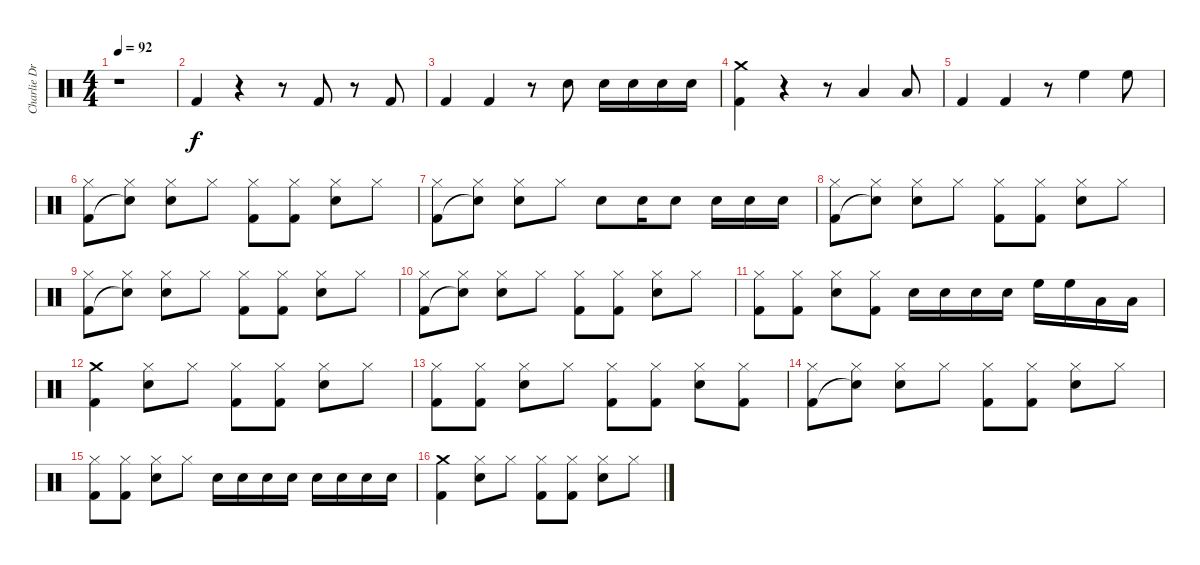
\track ("Charlie Drums" "Charlie Dr") {instrument percussion}
\staff {score}
\articulation defaults
\ts (4 4)
\tempo 92
\clef neutral
\ks c
r.1{dy f} |
"Kick (hit) 2".4 r.4 r.8 "Kick (hit) 2".8 r.8 "Kick (hit) 2".8 |
"Kick (hit) 2".4 "Kick (hit) 2".4 r.8 "Snare (hit) 2".8 "Snare (hit) 2".16 "Snare (hit) 2".16 "Snare (hit) 2".16 "Snare (hit) 2".16 |
("Crash medium (hit)" "Kick (hit) 2").4 r.4 r.8 "Low Tom (hit)".4 "Low Tom (hit)".8 |
"Kick (hit) 2".4 "Kick (hit) 2".4 r.8 "High Floor Tom (hit)".4 "High Floor Tom (hit)".8 |
("Hi-Hat (closed)" "Kick (hit) 2").8 ("Hi-Hat (closed)" "Snare (hit)"{t}).8 ("Hi-Hat (closed)" "Snare (hit) 2").8 "Hi-Hat (closed)".8 ("Hi-Hat (closed)" "Kick (hit) 2").8 ("Hi-Hat (closed)" "Kick (hit) 2").8 ("Hi-Hat (closed)" "Snare (hit) 2").8 "Hi-Hat (closed)".8 |
("Hi-Hat (closed)" "Kick (hit) 2").8 ("Hi-Hat (closed)" "Snare (hit)"{t}).8 ("Hi-Hat (closed)" "Snare (hit) 2").8 "Hi-Hat (closed)".8 "Snare (hit) 2".8 "Snare (hit) 2".16 "Snare (hit) 2".8 "Snare (hit) 2".16 "Snare (hit) 2".16 "Snare (hit) 2".16 |
("Hi-Hat (closed)" "Kick (hit) 2").8 ("Hi-Hat (closed)" "Snare (hit)"{t}).8 ("Hi-Hat (closed)" "Snare (hit) 2").8 "Hi-Hat (closed)".8 ("Hi-Hat (closed)" "Kick (hit) 2").8 ("Hi-Hat (closed)" "Kick (hit) 2").8 ("Hi-Hat (closed)" "Snare (hit) 2").8 "Hi-Hat (closed)".8 |
("Hi-Hat (closed)" "Kick (hit) 2").8 ("Hi-Hat (closed)" "Snare (hit)"{t}).8 ("Hi-Hat (closed)" "Snare (hit) 2").8 "Hi-Hat (closed)".8 ("Hi-Hat (closed)" "Kick (hit) 2").8 ("Hi-Hat (closed)" "Kick (hit) 2").8 ("Hi-Hat (closed)" "Snare (hit) 2").8 "Hi-Hat (closed)".8 |
("Hi-Hat (closed)" "Kick (hit) 2").8 ("Hi-Hat (closed)" "Snare (hit)"{t}).8 ("Hi-Hat (closed)" "Snare (hit) 2").8 "Hi-Hat (closed)".8 ("Hi-Hat (closed)" "Kick (hit) 2").8 ("Hi-Hat (closed)" "Kick (hit) 2").8 ("Hi-Hat (closed)" "Snare (hit) 2").8 "Hi-Hat (closed)".8 |
("Hi-Hat (closed)" "Kick (hit) 2").8 ("Hi-Hat (closed)" "Kick (hit) 2").8 ("Hi-Hat (closed)" "Snare (hit) 2").8 ("Hi-Hat (closed)" "Kick (hit) 2").8 "Snare (hit) 2".16 "Snare (hit) 2".16 "Snare (hit) 2".16 "Snare (hit) 2".16 "High Floor Tom (hit)".16 "High Floor Tom (hit)".16 "Low Tom (hit)".16 "Low Tom (hit)".16 |
("Crash medium (hit)" "Kick (hit) 2").4 ("Hi-Hat (closed)" "Snare (hit) 2").8 "Hi-Hat (closed)".8 ("Hi-Hat (closed)" "Kick (hit) 2").8 ("Hi-Hat (closed)" "Kick (hit) 2").8 ("Hi-Hat (closed)" "Snare (hit) 2").8 "Hi-Hat (closed)".8 |
("Hi-Hat (closed)" "Kick (hit) 2").8 ("Hi-Hat (closed)" "Kick (hit) 2").8 ("Hi-Hat (closed)" "Snare (hit) 2").8 "Hi-Hat (closed)".8 ("Hi-Hat (closed)" "Kick (hit) 2").8 ("Hi-Hat (closed)" "Kick (hit) 2").8 ("Hi-Hat (closed)" "Snare (hit) 2").8 ("Hi-Hat (closed)" "Kick (hit) 2").8 |
("Hi-Hat (closed)" "Kick (hit) 2").8 ("Hi-Hat (closed)" "Snare (hit)"{t}).8 ("Hi-Hat (closed)" "Snare (hit) 2").8 "Hi-Hat (closed)".8 ("Hi-Hat (closed)" "Kick (hit) 2").8 ("Hi-Hat (closed)" "Kick (hit) 2").8 ("Hi-Hat (closed)" "Snare (hit) 2").8 "Hi-Hat (closed)".8 |
("Hi-Hat (closed)" "Kick (hit) 2").8 ("Hi-Hat (closed)" "Kick (hit) 2").8 ("Hi-Hat (closed)" "Snare (hit) 2").8 "Hi-Hat (closed)".8 "Snare (hit) 2".16 "Snare (hit) 2".16 "Snare (hit) 2".16 "Snare (hit) 2".16 "Snare (hit) 2".16 "Snare (hit) 2".16 "Snare (hit) 2".16 "Snare (hit) 2".16 |
("Crash medium (hit)" "Kick (hit) 2").4 ("Hi-Hat (closed)" "Snare (hit) 2").8 "Hi-Hat (closed)".8 ("Hi-Hat (closed)" "Kick (hit) 2").8 ("Hi-Hat (closed)" "Kick (hit) 2").8 ("Hi-Hat (closed)" "Snare (hit) 2").8 "Hi-Hat (closed)".8
